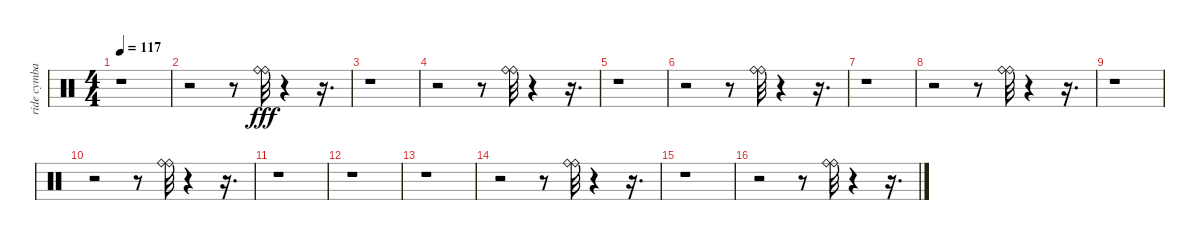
\track ("ride cymbal" "ride cymba") {instrument percussion}
\staff {score}
\articulation defaults
\ts (4 4)
\tempo 117
\clef neutral
\ks c
r.1{dy fff} |
r.2 r.8 ("Ride (bell)" "Ride (bell)").32 r.4 r.16{d} |
r.1 |
r.2 r.8 ("Ride (bell)" "Ride (bell)").32 r.4 r.16{d} |
r.1 |
r.2 r.8 ("Ride (bell)" "Ride (bell)").32 r.4 r.16{d} |
r.1 |
r.2 r.8 ("Ride (bell)" "Ride (bell)").32 r.4 r.16{d} |
r.1 |
r.2 r.8 ("Ride (bell)" "Ride (bell)").32 r.4 r.16{d} |
r.1 |
r.1 |
r.1 |
r.2 r.8 ("Ride (bell)" "Ride (bell)").32 r.4 r.16{d} |
r.1 |
r.2 r.8 ("Ride (bell)" "Ride (bell)").32 r.4 r.16{d}
